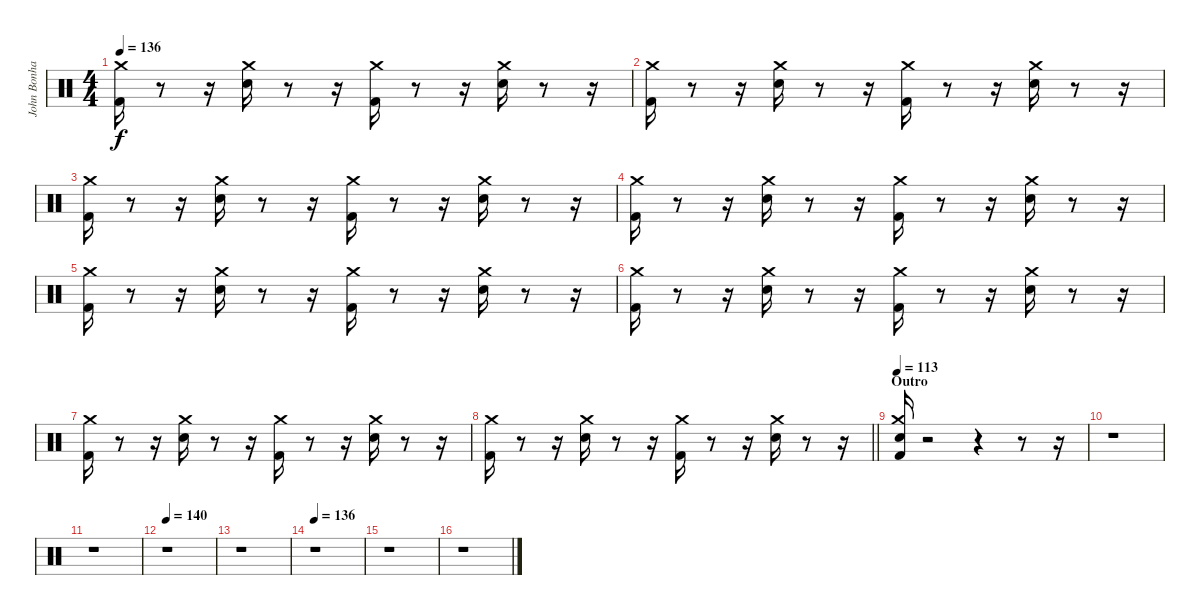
\track ("John Bonham" "John Bonha") {instrument percussion}
\staff {score}
\articulation defaults
\ts (4 4)
\tempo 136
\clef neutral
\ks aminor
("Kick (hit) 2" "Crash medium (hit)").16{dy f} r.8 r.16 ("Electric Snare (hit)" "Crash medium (hit)").16 r.8 r.16 ("Kick (hit) 2" "Crash medium (hit)").16 r.8 r.16 ("Electric Snare (hit)" "Crash medium (hit)").16 r.8 r.16 |
("Kick (hit) 2" "Crash medium (hit)").16 r.8 r.16 ("Electric Snare (hit)" "Crash medium (hit)").16 r.8 r.16 ("Kick (hit) 2" "Crash medium (hit)").16 r.8 r.16 ("Electric Snare (hit)" "Crash medium (hit)").16 r.8 r.16 |
("Kick (hit) 2" "Crash medium (hit)").16 r.8 r.16 ("Electric Snare (hit)" "Crash medium (hit)").16 r.8 r.16 ("Kick (hit) 2" "Crash medium (hit)").16 r.8 r.16 ("Electric Snare (hit)" "Crash medium (hit)").16 r.8 r.16 |
("Kick (hit) 2" "Crash medium (hit)").16 r.8 r.16 ("Electric Snare (hit)" "Crash medium (hit)").16 r.8 r.16 ("Kick (hit) 2" "Crash medium (hit)").16 r.8 r.16 ("Electric Snare (hit)" "Crash medium (hit)").16 r.8 r.16 |
("Kick (hit) 2" "Crash medium (hit)").16 r.8 r.16 ("Electric Snare (hit)" "Crash medium (hit)").16 r.8 r.16 ("Kick (hit) 2" "Crash medium (hit)").16 r.8 r.16 ("Electric Snare (hit)" "Crash medium (hit)").16 r.8 r.16 |
("Kick (hit) 2" "Crash medium (hit)").16 r.8 r.16 ("Electric Snare (hit)" "Crash medium (hit)").16 r.8 r.16 ("Kick (hit) 2" "Crash medium (hit)").16 r.8 r.16 ("Electric Snare (hit)" "Crash medium (hit)").16 r.8 r.16 |
("Kick (hit) 2" "Crash medium (hit)").16 r.8 r.16 ("Electric Snare (hit)" "Crash medium (hit)").16 r.8 r.16 ("Kick (hit) 2" "Crash medium (hit)").16 r.8 r.16 ("Electric Snare (hit)" "Crash medium (hit)").16 r.8 r.16 |
\barLineRight lightlight
("Kick (hit) 2" "Crash medium (hit)").16 r.8 r.16 ("Electric Snare (hit)" "Crash medium (hit)").16 r.8 r.16 ("Kick (hit) 2" "Crash medium (hit)").16 r.8 r.16 ("Electric Snare (hit)" "Crash medium (hit)").16 r.8 r.16 |
\section ("" "Outro")
\tempo 113
("Kick (hit) 2" "Electric Snare (hit)" "Crash medium (hit)").16 r.2 r.4 r.8 r.16 |
r.1 |
r.1 |
\tempo 140
r.1 |
r.1 |
\tempo 136
r.1 |
r.1 |
r.1
